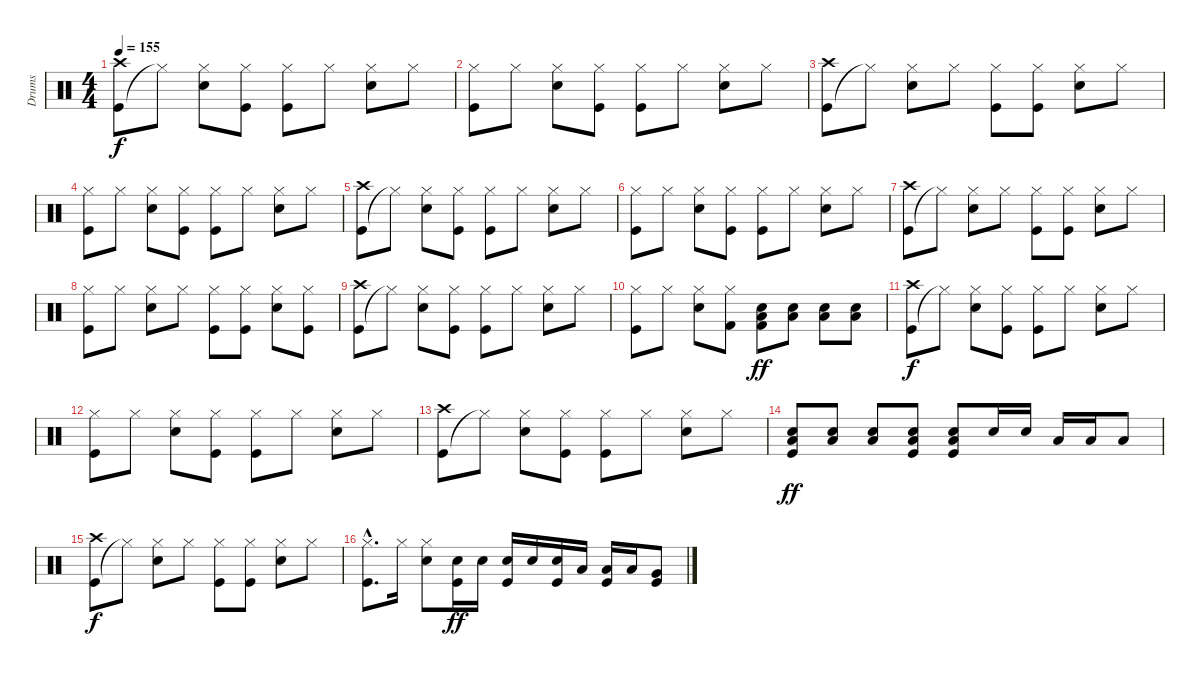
\track ("Drums" "Drums") {instrument percussion}
\staff {score}
\articulation defaults
\ts (4 4)
\tempo 155
\clef neutral
\ks c
("Kick (hit)" "Crash high (hit)").8{dy f} "Hi-Hat (closed)"{t}.8 ("Snare (hit) 2" "Hi-Hat (closed)").8 ("Kick (hit)" "Hi-Hat (closed)").8 ("Kick (hit)" "Hi-Hat (closed)").8 "Hi-Hat (closed)".8 ("Snare (hit) 2" "Hi-Hat (closed)").8 "Hi-Hat (closed)".8 |
("Kick (hit)" "Hi-Hat (closed)").8 "Hi-Hat (closed)".8 ("Snare (hit) 2" "Hi-Hat (closed)").8 ("Kick (hit)" "Hi-Hat (closed)").8 ("Kick (hit)" "Hi-Hat (closed)").8 "Hi-Hat (closed)".8 ("Snare (hit) 2" "Hi-Hat (closed)").8 "Hi-Hat (closed)".8 |
("Kick (hit)" "Crash high (hit)").8 "Hi-Hat (closed)"{t}.8 ("Snare (hit) 2" "Hi-Hat (closed)").8 "Hi-Hat (closed)".8 ("Kick (hit)" "Hi-Hat (closed)").8 ("Kick (hit)" "Hi-Hat (closed)").8 ("Snare (hit) 2" "Hi-Hat (closed)").8 "Hi-Hat (closed)".8 |
("Kick (hit)" "Hi-Hat (closed)").8 "Hi-Hat (closed)".8 ("Snare (hit) 2" "Hi-Hat (closed)").8 ("Kick (hit)" "Hi-Hat (closed)").8 ("Kick (hit)" "Hi-Hat (closed)").8 "Hi-Hat (closed)".8 ("Snare (hit) 2" "Hi-Hat (closed)").8 "Hi-Hat (closed)".8 |
("Kick (hit)" "Crash high (hit)").8 "Hi-Hat (closed)"{t}.8 ("Snare (hit) 2" "Hi-Hat (closed)").8 ("Kick (hit)" "Hi-Hat (closed)").8 ("Kick (hit)" "Hi-Hat (closed)").8 "Hi-Hat (closed)".8 ("Snare (hit) 2" "Hi-Hat (closed)").8 "Hi-Hat (closed)".8 |
("Kick (hit)" "Hi-Hat (closed)").8 "Hi-Hat (closed)".8 ("Snare (hit) 2" "Hi-Hat (closed)").8 ("Kick (hit)" "Hi-Hat (closed)").8 ("Kick (hit)" "Hi-Hat (closed)").8 "Hi-Hat (closed)".8 ("Snare (hit) 2" "Hi-Hat (closed)").8 "Hi-Hat (closed)".8 |
("Kick (hit)" "Crash high (hit)").8 "Hi-Hat (closed)"{t}.8 ("Snare (hit) 2" "Hi-Hat (closed)").8 "Hi-Hat (closed)".8 ("Kick (hit)" "Hi-Hat (closed)").8 ("Kick (hit)" "Hi-Hat (closed)").8 ("Snare (hit) 2" "Hi-Hat (closed)").8 "Hi-Hat (closed)".8 |
("Kick (hit)" "Hi-Hat (closed)").8 "Hi-Hat (closed)".8 ("Snare (hit) 2" "Hi-Hat (closed)").8 "Hi-Hat (closed)".8 ("Kick (hit)" "Hi-Hat (closed)").8 ("Kick (hit)" "Hi-Hat (closed)").8 ("Snare (hit) 2" "Hi-Hat (closed)").8 ("Kick (hit)" "Hi-Hat (closed)").8 |
("Kick (hit)" "Crash high (hit)").8 "Hi-Hat (closed)"{t}.8 ("Snare (hit) 2" "Hi-Hat (closed)").8 ("Kick (hit)" "Hi-Hat (closed)").8 ("Kick (hit)" "Hi-Hat (closed)").8 "Hi-Hat (closed)".8 ("Snare (hit) 2" "Hi-Hat (closed)").8 "Hi-Hat (closed)".8 |
("Kick (hit)" "Hi-Hat (closed)").8 "Hi-Hat (closed)".8 ("Snare (hit) 2" "Hi-Hat (closed)").8 ("Kick (hit) 2" "Hi-Hat (closed)").8 ("Snare (hit) 2" "Kick (hit) 2" "Low Floor Tom (hit)").8{dy ff} ("Snare (hit) 2" "Low Floor Tom (hit)").8 ("Snare (hit) 2" "Low Floor Tom (hit)").8 ("Snare (hit) 2" "Low Floor Tom (hit)").8 |
("Kick (hit)" "Crash high (hit)").8{dy f} "Hi-Hat (closed)"{t}.8 ("Snare (hit) 2" "Hi-Hat (closed)").8 ("Kick (hit)" "Hi-Hat (closed)").8 ("Kick (hit)" "Hi-Hat (closed)").8 "Hi-Hat (closed)".8 ("Snare (hit) 2" "Hi-Hat (closed)").8 "Hi-Hat (closed)".8 |
("Kick (hit)" "Hi-Hat (closed)").8 "Hi-Hat (closed)".8 ("Snare (hit) 2" "Hi-Hat (closed)").8 ("Kick (hit)" "Hi-Hat (closed)").8 ("Kick (hit)" "Hi-Hat (closed)").8 "Hi-Hat (closed)".8 ("Snare (hit) 2" "Hi-Hat (closed)").8 "Hi-Hat (closed)".8 |
("Kick (hit)" "Crash high (hit)").8 "Hi-Hat (closed)"{t}.8 ("Snare (hit) 2" "Hi-Hat (closed)").8 ("Kick (hit)" "Hi-Hat (closed)").8 ("Kick (hit)" "Hi-Hat (closed)").8 "Hi-Hat (closed)".8 ("Snare (hit) 2" "Hi-Hat (closed)").8 "Hi-Hat (closed)".8 |
("Snare (hit) 2" "Kick (hit)" "Low Floor Tom (hit)").8{dy ff} ("Snare (hit) 2" "Low Floor Tom (hit)").8 ("Snare (hit) 2" "Low Floor Tom (hit)").8 ("Snare (hit) 2" "Kick (hit)" "Low Floor Tom (hit)").8 ("Snare (hit) 2" "Kick (hit)" "Low Floor Tom (hit)").8 "Snare (hit) 2".16 "Snare (hit) 2".16 "Low Floor Tom (hit)".16 "Low Floor Tom (hit)".16 "Low Floor Tom (hit)".8 |
("Kick (hit)" "Crash high (hit)").8{dy f} "Hi-Hat (closed)"{t}.8 ("Snare (hit) 2" "Hi-Hat (closed)").8 "Hi-Hat (closed)".8 ("Kick (hit)" "Hi-Hat (closed)").8 ("Kick (hit)" "Hi-Hat (closed)").8 ("Snare (hit) 2" "Hi-Hat (closed)").8 "Hi-Hat (closed)".8 |
("Kick (hit)"{hac} "Hi-Hat (closed)"{hac}).8{d} "Hi-Hat (closed)".16 ("Snare (hit) 2" "Hi-Hat (closed)").8 ("Kick (hit)" "Snare (hit) 2").16{dy ff} "Snare (hit) 2".16 ("Kick (hit)" "Snare (hit) 2").16 "Snare (hit) 2".16 ("Kick (hit)" "Snare (hit) 2").16 "Low Floor Tom (hit)".16 ("Kick (hit)" "Low Floor Tom (hit)").16 "Low Tom (hit)".16 ("Kick (hit)" "Very Low Tom (hit)").8
